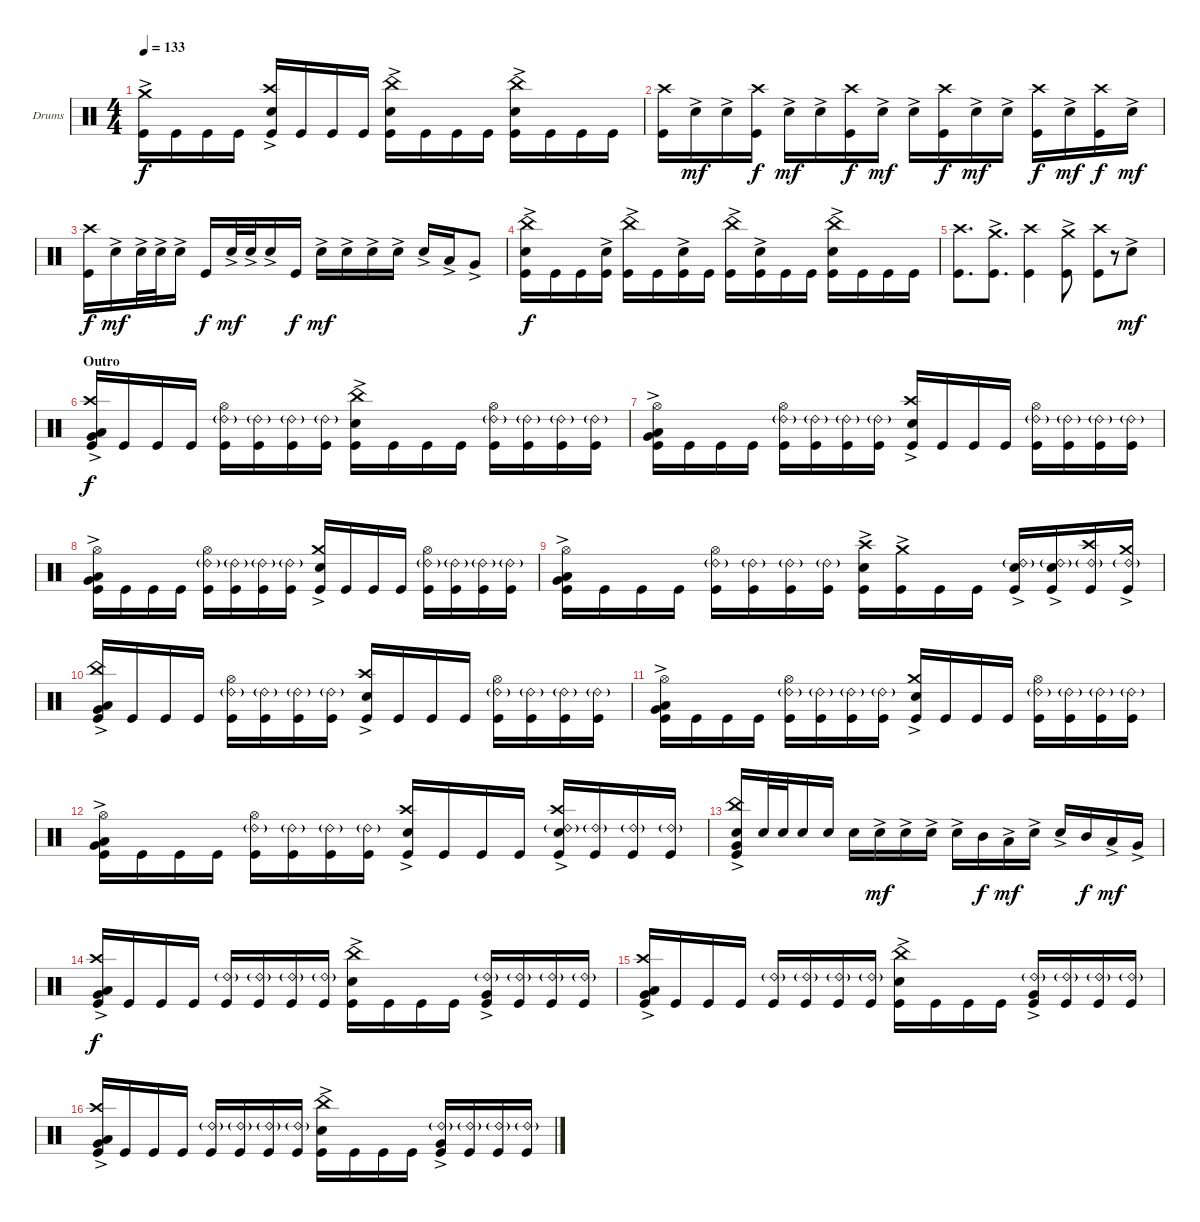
\bracketExtendMode groupsimilarinstruments
\firstSystemTrackNameOrientation horizontal
\otherSystemsTrackNameOrientation horizontal
\track ("Drumkit" "Drums") {instrument percussion}
\staff {score}
\articulation defaults
\ts (4 4)
\tempo 133
\clef neutral
\ks c
("Kick (hit)" "Crash medium (hit)"{ac}).16{dy f} "Kick (hit)".16 "Kick (hit)".16 "Kick (hit)".16 ("Kick (hit)" "Crash high (hit)" "Snare (hit) 2"{ac}).16 "Kick (hit)".16 "Kick (hit)".16 "Kick (hit)".16 ("Kick (hit)" "Snare (hit) 2"{ac} "China (hit)"{ac}).16 "Kick (hit)".16 "Kick (hit)".16 "Kick (hit)".16 ("Kick (hit)" "Snare (hit) 2"{ac} "China (hit)"{ac}).16 "Kick (hit)".16 "Kick (hit)".16 "Kick (hit)".16 |
("Kick (hit)" "Crash high (hit)").16 "Snare (hit) 2"{ac}.16{dy mf} "Snare (hit) 2"{ac}.16 ("Kick (hit)" "Crash high (hit)").16{dy f} "Snare (hit) 2"{ac}.16{dy mf} "Snare (hit) 2"{ac}.16 ("Kick (hit)" "Crash high (hit)").16{dy f} "Snare (hit) 2"{ac}.16{dy mf} "Snare (hit) 2"{ac}.16 ("Kick (hit)" "Crash high (hit)").16{dy f} "Snare (hit) 2"{ac}.16{dy mf} "Snare (hit) 2"{ac}.16 ("Kick (hit)" "Crash high (hit)").16{dy f} "Snare (hit) 2"{ac}.16{dy mf} ("Kick (hit)" "Crash high (hit)").16{dy f} "Snare (hit) 2"{ac}.16{dy mf} |
("Kick (hit)" "Crash high (hit)").16{dy f} "Snare (hit) 2"{ac}.16{dy mf} "Snare (hit) 2"{ac}.32 "Snare (hit) 2"{ac}.32 "Snare (hit) 2"{ac}.16 "Kick (hit)".16{dy f} "Snare (hit) 2"{ac}.32{dy mf} "Snare (hit) 2"{ac}.32 "Snare (hit) 2"{ac}.16 "Kick (hit)".16{dy f} "Snare (hit) 2"{ac}.16{dy mf} "Snare (hit) 2"{ac}.16 "Snare (hit) 2"{ac}.16 "Snare (hit) 2"{ac}.16 "Snare (hit) 2"{ac}.16 "Low Tom (hit)"{ac}.16 "Very Low Tom (hit)"{ac}.8 |
("Kick (hit)" "China (hit)"{ac} "Snare (hit) 2"{ac}).16{dy f} "Kick (hit)".16 "Kick (hit)".16 ("Kick (hit)" "Snare (hit) 2"{ac}).16 ("Kick (hit)" "China (hit)"{ac}).16 "Kick (hit)".16 ("Kick (hit)" "Snare (hit) 2"{ac}).16 "Kick (hit)".16 ("Kick (hit)" "China (hit)"{ac}).16 ("Kick (hit)" "Snare (hit) 2"{ac}).16 "Kick (hit)".16 "Kick (hit)".16 ("Kick (hit)" "China (hit)"{ac} "Snare (hit) 2"{ac}).16 "Kick (hit)".16 "Kick (hit)".16 "Kick (hit)".16 |
("Kick (hit)" "Crash high (hit)").8{d} ("Kick (hit)" "Crash medium (hit)"{ac}).8{d} ("Kick (hit)" "Crash high (hit)").4 ("Kick (hit)" "Crash medium (hit)"{ac}).8 ("Kick (hit)" "Crash high (hit)").8 r.8{gr} "Snare (hit) 2"{ac}.8{dy mf} |
\section ("" "Outro")
("Kick (hit)" "Very Low Tom (hit)"{ac} "Low Tom (hit)"{ac} "Crash high (hit)").16{dy f} "Kick (hit)".16 "Kick (hit)".16 "Kick (hit)".16 ("Kick (hit)" "Ride (bell) 2"{g} "Hi-Hat (open)").16 ("Kick (hit)" "Ride (bell) 2"{g}).16 ("Kick (hit)" "Ride (bell) 2"{g}).16 ("Kick (hit)" "Ride (bell) 2"{g}).16 ("Kick (hit)" "China (hit)"{ac} "Snare (hit) 2"{ac}).16 "Kick (hit)".16 "Kick (hit)".16 "Kick (hit)".16 ("Kick (hit)" "Ride (bell) 2"{g} "Hi-Hat (open)").16 ("Kick (hit)" "Ride (bell) 2"{g}).16 ("Kick (hit)" "Ride (bell) 2"{g}).16 ("Kick (hit)" "Ride (bell) 2"{g}).16 |
("Kick (hit)" "Very Low Tom (hit)"{ac} "Low Tom (hit)"{ac} "Hi-Hat (open)").16 "Kick (hit)".16 "Kick (hit)".16 "Kick (hit)".16 ("Kick (hit)" "Ride (bell) 2"{g} "Hi-Hat (open)").16 ("Kick (hit)" "Ride (bell) 2"{g}).16 ("Kick (hit)" "Ride (bell) 2"{g}).16 ("Kick (hit)" "Ride (bell) 2"{g}).16 ("Kick (hit)" "Snare (hit) 2"{ac} "Crash high (hit)").16 "Kick (hit)".16 "Kick (hit)".16 "Kick (hit)".16 ("Kick (hit)" "Ride (bell) 2"{g} "Hi-Hat (open)").16 ("Kick (hit)" "Ride (bell) 2"{g}).16 ("Kick (hit)" "Ride (bell) 2"{g}).16 ("Kick (hit)" "Ride (bell) 2"{g}).16 |
("Kick (hit)" "Very Low Tom (hit)"{ac} "Low Tom (hit)"{ac} "Hi-Hat (open)").16 "Kick (hit)".16 "Kick (hit)".16 "Kick (hit)".16 ("Kick (hit)" "Ride (bell) 2"{g} "Hi-Hat (open)").16 ("Kick (hit)" "Ride (bell) 2"{g}).16 ("Kick (hit)" "Ride (bell) 2"{g}).16 ("Kick (hit)" "Ride (bell) 2"{g}).16 ("Kick (hit)" "Snare (hit) 2"{ac} "Crash medium (hit)"{ac}).16 "Kick (hit)".16 "Kick (hit)".16 "Kick (hit)".16 ("Kick (hit)" "Ride (bell) 2"{g} "Hi-Hat (open)").16 ("Kick (hit)" "Ride (bell) 2"{g}).16 ("Kick (hit)" "Ride (bell) 2"{g}).16 ("Kick (hit)" "Ride (bell) 2"{g}).16 |
("Kick (hit)" "Very Low Tom (hit)"{ac} "Low Tom (hit)"{ac} "Hi-Hat (open)").16 "Kick (hit)".16 "Kick (hit)".16 "Kick (hit)".16 ("Kick (hit)" "Ride (bell) 2"{g} "Hi-Hat (open)").16 ("Kick (hit)" "Ride (bell) 2"{g}).16 ("Kick (hit)" "Ride (bell) 2"{g}).16 ("Kick (hit)" "Ride (bell) 2"{g}).16 ("Kick (hit)" "Snare (hit) 2"{ac} "Crash high (hit)").16 ("Kick (hit)" "Crash medium (hit)"{ac}).16 "Kick (hit)".16 "Kick (hit)".16 ("Kick (hit)" "Snare (hit) 2"{ac} "Ride (bell) 2"{g}).16 ("Kick (hit)" "Snare (hit) 2"{ac} "Ride (bell) 2"{g}).16 ("Kick (hit)" "Crash high (hit)" "Ride (bell) 2"{g}).16 ("Kick (hit)" "Crash medium (hit)"{ac} "Ride (bell) 2"{g}).16 |
("Kick (hit)" "Very Low Tom (hit)"{ac} "Low Tom (hit)"{ac} "China (hit)"{ac}).16 "Kick (hit)".16 "Kick (hit)".16 "Kick (hit)".16 ("Kick (hit)" "Ride (bell) 2"{g} "Hi-Hat (open)").16 ("Kick (hit)" "Ride (bell) 2"{g}).16 ("Kick (hit)" "Ride (bell) 2"{g}).16 ("Kick (hit)" "Ride (bell) 2"{g}).16 ("Kick (hit)" "Snare (hit) 2"{ac} "Crash high (hit)").16 "Kick (hit)".16 "Kick (hit)".16 "Kick (hit)".16 ("Kick (hit)" "Ride (bell) 2"{g} "Hi-Hat (open)").16 ("Kick (hit)" "Ride (bell) 2"{g}).16 ("Kick (hit)" "Ride (bell) 2"{g}).16 ("Kick (hit)" "Ride (bell) 2"{g}).16 |
("Kick (hit)" "Very Low Tom (hit)"{ac} "Low Tom (hit)"{ac} "Hi-Hat (open)").16 "Kick (hit)".16 "Kick (hit)".16 "Kick (hit)".16 ("Kick (hit)" "Ride (bell) 2"{g} "Hi-Hat (open)").16 ("Kick (hit)" "Ride (bell) 2"{g}).16 ("Kick (hit)" "Ride (bell) 2"{g}).16 ("Kick (hit)" "Ride (bell) 2"{g}).16 ("Kick (hit)" "Snare (hit) 2"{ac} "Crash medium (hit)"{ac}).16 "Kick (hit)".16 "Kick (hit)".16 "Kick (hit)".16 ("Kick (hit)" "Ride (bell) 2"{g} "Hi-Hat (open)").16 ("Kick (hit)" "Ride (bell) 2"{g}).16 ("Kick (hit)" "Ride (bell) 2"{g}).16 ("Kick (hit)" "Ride (bell) 2"{g}).16 |
("Kick (hit)" "Very Low Tom (hit)"{ac} "Low Tom (hit)"{ac} "Hi-Hat (open)").16 "Kick (hit)".16 "Kick (hit)".16 "Kick (hit)".16 ("Kick (hit)" "Ride (bell) 2"{g} "Hi-Hat (open)").16 ("Kick (hit)" "Ride (bell) 2"{g}).16 ("Kick (hit)" "Ride (bell) 2"{g}).16 ("Kick (hit)" "Ride (bell) 2"{g}).16 ("Kick (hit)" "Snare (hit) 2"{ac} "Crash high (hit)").16 "Kick (hit)".16 "Kick (hit)".16 "Kick (hit)".16 ("Kick (hit)" "Ride (bell) 2"{g} "Crash high (hit)"{ac} "Snare (hit) 2"{ac}).16 ("Kick (hit)" "Ride (bell) 2"{g}).16 ("Kick (hit)" "Ride (bell) 2"{g}).16 ("Kick (hit)" "Ride (bell) 2"{g}).16 |
("Snare (hit) 2"{ac} "China (hit)"{ac} "Kick (hit)" "Very Low Tom (hit)"{ac}).16 "Snare (hit) 2".32 "Snare (hit) 2".32 "Snare (hit) 2".16 "Snare (hit) 2".16 "Snare (hit) 2".16 "Snare (hit) 2"{ac}.16{dy mf} "Snare (hit) 2"{ac}.16 "Snare (hit) 2"{ac}.16 "Snare (hit) 2"{ac}.16 "Mid Tom (hit)".16{dy f} "Low Tom (hit)"{ac}.16{dy mf} "Snare (hit) 2"{ac}.16 "Snare (hit) 2"{ac}.16 "Mid Tom (hit)".16{dy f} "Low Tom (hit)"{ac}.16{dy mf} "Very Low Tom (hit)"{ac}.16 |
("Kick (hit)" "Crash high (hit)" "Very Low Tom (hit)"{ac} "Low Tom (hit)"{ac}).16{dy f} "Kick (hit)".16 "Kick (hit)".16 "Kick (hit)".16 ("Kick (hit)" "Ride (bell) 2"{g}).16 ("Kick (hit)" "Ride (bell) 2"{g}).16 ("Kick (hit)" "Ride (bell) 2"{g}).16 ("Kick (hit)" "Ride (bell) 2"{g}).16 ("Kick (hit)" "Snare (hit) 2"{ac} "China (hit)"{ac}).16 "Kick (hit)".16 "Kick (hit)".16 "Kick (hit)".16 ("Kick (hit)" "Ride (bell) 2"{g} "Very Low Tom (hit)"{ac}).16 ("Kick (hit)" "Ride (bell) 2"{g}).16 ("Kick (hit)" "Ride (bell) 2"{g}).16 ("Kick (hit)" "Ride (bell) 2"{g}).16 |
("Kick (hit)" "Crash high (hit)" "Very Low Tom (hit)"{ac} "Low Tom (hit)"{ac}).16 "Kick (hit)".16 "Kick (hit)".16 "Kick (hit)".16 ("Kick (hit)" "Ride (bell) 2"{g}).16 ("Kick (hit)" "Ride (bell) 2"{g}).16 ("Kick (hit)" "Ride (bell) 2"{g}).16 ("Kick (hit)" "Ride (bell) 2"{g}).16 ("Kick (hit)" "Snare (hit) 2"{ac} "China (hit)"{ac}).16 "Kick (hit)".16 "Kick (hit)".16 "Kick (hit)".16 ("Kick (hit)" "Ride (bell) 2"{g} "Very Low Tom (hit)"{ac}).16 ("Kick (hit)" "Ride (bell) 2"{g}).16 ("Kick (hit)" "Ride (bell) 2"{g}).16 ("Kick (hit)" "Ride (bell) 2"{g}).16 |
("Kick (hit)" "Crash high (hit)" "Very Low Tom (hit)"{ac} "Low Tom (hit)"{ac}).16 "Kick (hit)".16 "Kick (hit)".16 "Kick (hit)".16 ("Kick (hit)" "Ride (bell) 2"{g}).16 ("Kick (hit)" "Ride (bell) 2"{g}).16 ("Kick (hit)" "Ride (bell) 2"{g}).16 ("Kick (hit)" "Ride (bell) 2"{g}).16 ("Kick (hit)" "Snare (hit) 2"{ac} "China (hit)"{ac}).16 "Kick (hit)".16 "Kick (hit)".16 "Kick (hit)".16 ("Kick (hit)" "Ride (bell) 2"{g} "Very Low Tom (hit)"{ac}).16 ("Kick (hit)" "Ride (bell) 2"{g}).16 ("Kick (hit)" "Ride (bell) 2"{g}).16 ("Kick (hit)" "Ride (bell) 2"{g}).16
